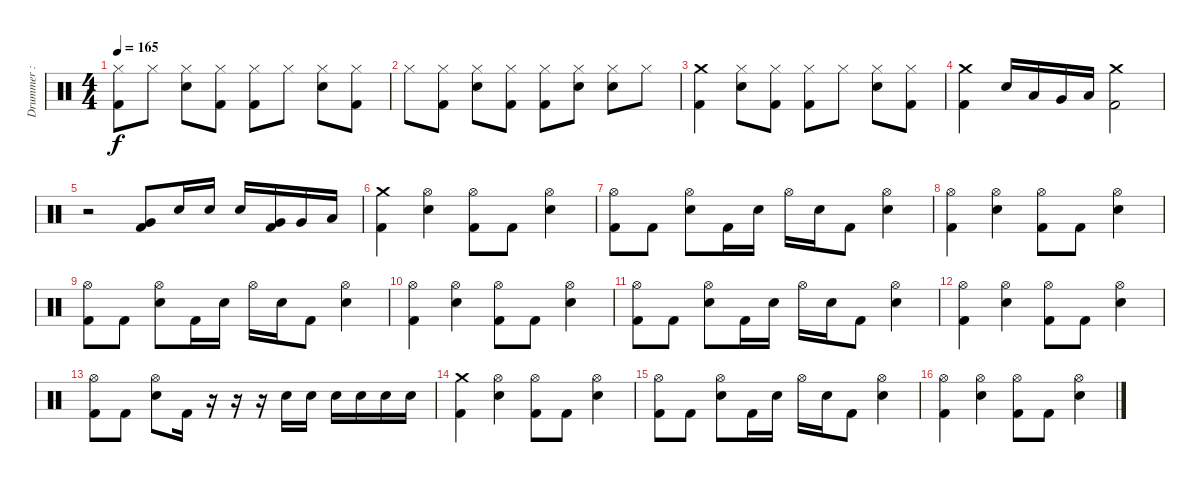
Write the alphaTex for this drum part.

\track ("Drummer : Tainaka Ritsu - Chan" "Drummer : ") {instrument percussion}
\staff {score}
\articulation defaults
\ts (4 4)
\tempo 165
\clef neutral
\ks c
("Hi-Hat (closed)" "Kick (hit) 2").8{dy f} "Hi-Hat (closed)".8 ("Hi-Hat (closed)" "Electric Snare (hit)").8 ("Hi-Hat (closed)" "Kick (hit) 2").8 ("Hi-Hat (closed)" "Kick (hit) 2").8 "Hi-Hat (closed)".8 ("Hi-Hat (closed)" "Electric Snare (hit)").8 ("Hi-Hat (closed)" "Kick (hit) 2").8 |
"Hi-Hat (closed)".8 ("Hi-Hat (closed)" "Kick (hit) 2").8 ("Hi-Hat (closed)" "Electric Snare (hit)").8 ("Hi-Hat (closed)" "Kick (hit) 2").8 ("Hi-Hat (closed)" "Kick (hit) 2").8 ("Hi-Hat (closed)" "Electric Snare (hit)").8 ("Hi-Hat (closed)" "Electric Snare (hit)").8 "Hi-Hat (closed)".8 |
("Crash medium (hit)" "Kick (hit) 2").4 ("Hi-Hat (closed)" "Electric Snare (hit)").8 ("Hi-Hat (closed)" "Kick (hit) 2").8 ("Hi-Hat (closed)" "Kick (hit) 2").8 "Hi-Hat (closed)".8 ("Hi-Hat (closed)" "Electric Snare (hit)").8 ("Hi-Hat (closed)" "Kick (hit) 2").8 |
("Crash medium (hit)" "Kick (hit) 2").4 "Electric Snare (hit)".16 "Low Tom (hit)".16 "Very Low Tom (hit)".16 "Low Floor Tom (hit)".16 ("Crash medium (hit)" "Kick (hit) 2").2 |
r.2 ("Very Low Tom (hit)" "Kick (hit) 2").8 "Electric Snare (hit)".16 "Electric Snare (hit)".16 "Electric Snare (hit)".16 ("Very Low Tom (hit)" "Kick (hit) 2").16 "Very Low Tom (hit)".16 "Low Floor Tom (hit)".16 |
("Crash medium (hit)" "Kick (hit) 2").4 ("Hi-Hat (open)" "Electric Snare (hit)").4 ("Hi-Hat (open)" "Kick (hit) 2").8 "Kick (hit) 2".8 ("Hi-Hat (open)" "Electric Snare (hit)").4 |
("Hi-Hat (open)" "Kick (hit) 2").8 "Kick (hit) 2".8 ("Hi-Hat (open)" "Electric Snare (hit)").8 "Kick (hit) 2".16 "Electric Snare (hit)".16 "Hi-Hat (open)".16 "Electric Snare (hit)".16 "Kick (hit) 2".8 ("Hi-Hat (open)" "Electric Snare (hit)").4 |
("Hi-Hat (open)" "Kick (hit) 2").4 ("Hi-Hat (open)" "Electric Snare (hit)").4 ("Hi-Hat (open)" "Kick (hit) 2").8 "Kick (hit) 2".8 ("Hi-Hat (open)" "Electric Snare (hit)").4 |
("Hi-Hat (open)" "Kick (hit) 2").8 "Kick (hit) 2".8 ("Hi-Hat (open)" "Electric Snare (hit)").8 "Kick (hit) 2".16 "Electric Snare (hit)".16 "Hi-Hat (open)".16 "Electric Snare (hit)".16 "Kick (hit) 2".8 ("Hi-Hat (open)" "Electric Snare (hit)").4 |
("Hi-Hat (open)" "Kick (hit) 2").4 ("Hi-Hat (open)" "Electric Snare (hit)").4 ("Hi-Hat (open)" "Kick (hit) 2").8 "Kick (hit) 2".8 ("Hi-Hat (open)" "Electric Snare (hit)").4 |
("Hi-Hat (open)" "Kick (hit) 2").8 "Kick (hit) 2".8 ("Hi-Hat (open)" "Electric Snare (hit)").8 "Kick (hit) 2".16 "Electric Snare (hit)".16 "Hi-Hat (open)".16 "Electric Snare (hit)".16 "Kick (hit) 2".8 ("Hi-Hat (open)" "Electric Snare (hit)").4 |
("Hi-Hat (open)" "Kick (hit) 2").4 ("Hi-Hat (open)" "Electric Snare (hit)").4 ("Hi-Hat (open)" "Kick (hit) 2").8 "Kick (hit) 2".8 ("Hi-Hat (open)" "Electric Snare (hit)").4 |
("Hi-Hat (open)" "Kick (hit) 2").8 "Kick (hit) 2".8 ("Hi-Hat (open)" "Electric Snare (hit)").8 "Kick (hit) 2".16 r.16 r.16 r.16 "Electric Snare (hit)".16 "Electric Snare (hit)".16 "Electric Snare (hit)".16 "Electric Snare (hit)".16 "Electric Snare (hit)".16 "Electric Snare (hit)".16 |
("Crash medium (hit)" "Kick (hit) 2").4 ("Hi-Hat (open)" "Electric Snare (hit)").4 ("Hi-Hat (open)" "Kick (hit) 2").8 "Kick (hit) 2".8 ("Hi-Hat (open)" "Electric Snare (hit)").4 |
("Hi-Hat (open)" "Kick (hit) 2").8 "Kick (hit) 2".8 ("Hi-Hat (open)" "Electric Snare (hit)").8 "Kick (hit) 2".16 "Electric Snare (hit)".16 "Hi-Hat (open)".16 "Electric Snare (hit)".16 "Kick (hit) 2".8 ("Hi-Hat (open)" "Electric Snare (hit)").4 |
("Hi-Hat (open)" "Kick (hit) 2").4 ("Hi-Hat (open)" "Electric Snare (hit)").4 ("Hi-Hat (open)" "Kick (hit) 2").8 "Kick (hit) 2".8 ("Hi-Hat (open)" "Electric Snare (hit)").4
